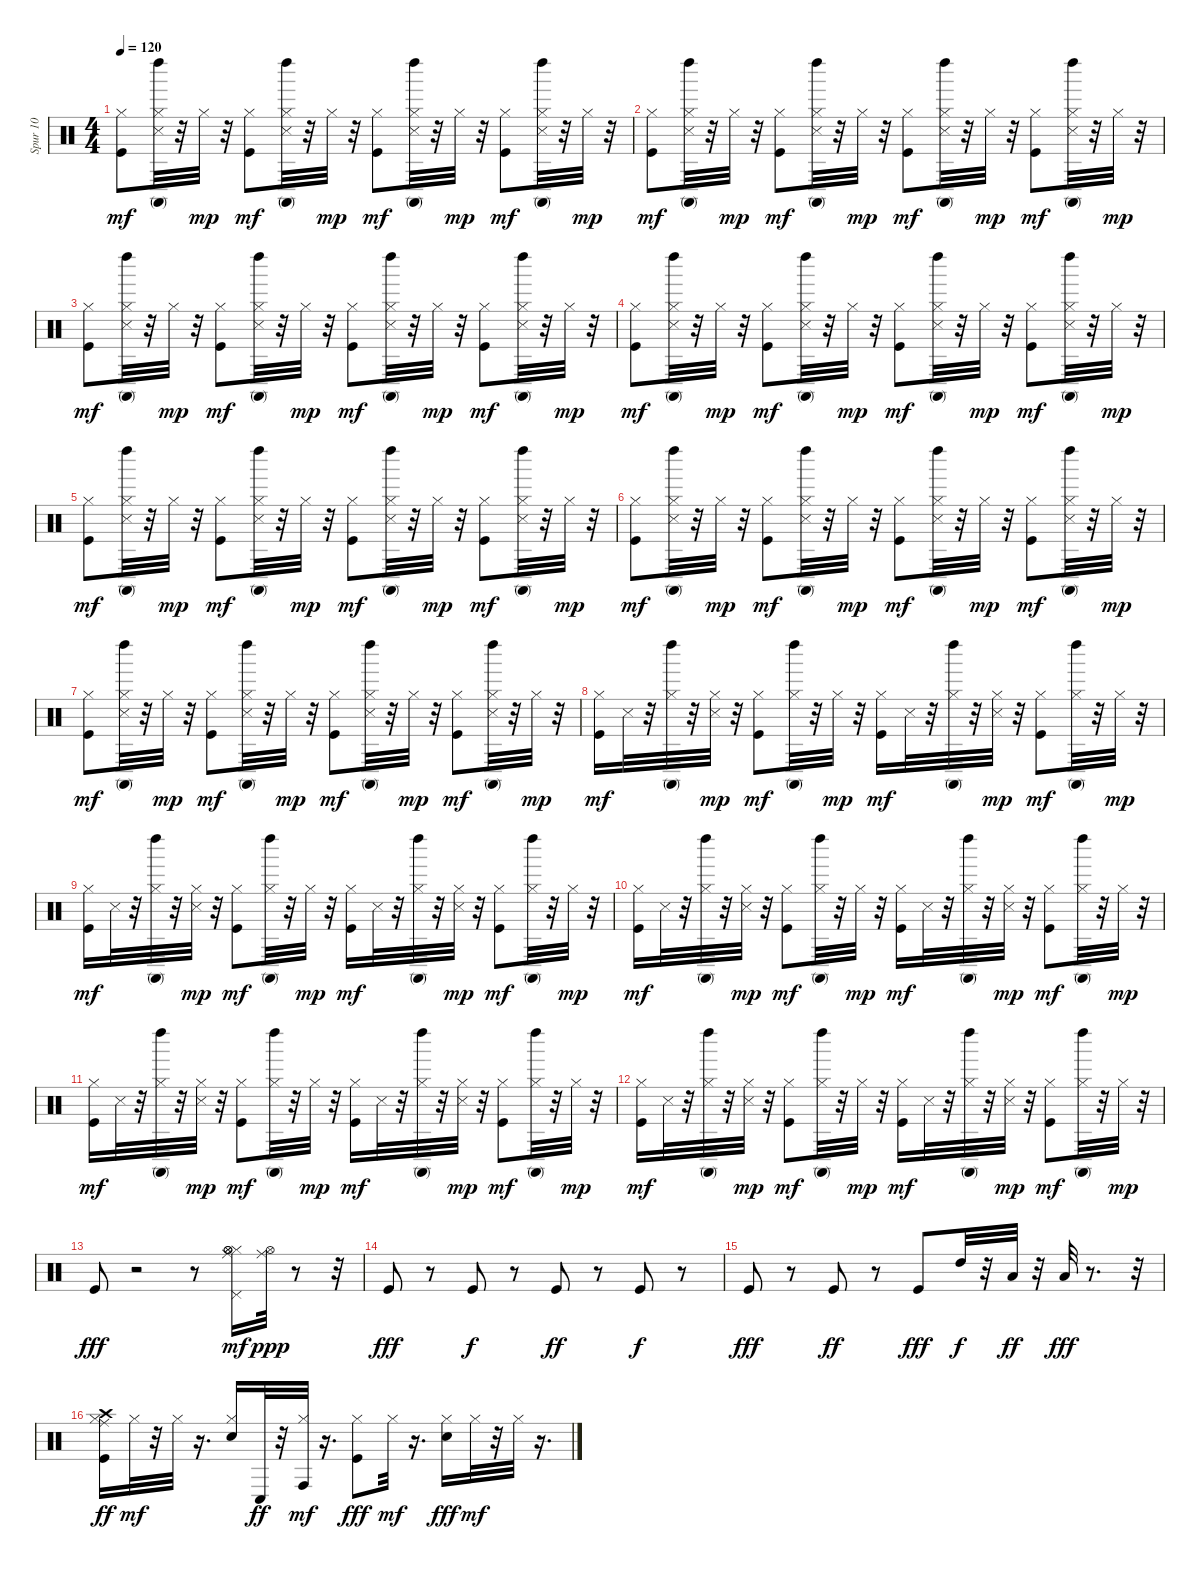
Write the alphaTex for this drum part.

\track ("Spur 10" "Spur 10") {instrument percussion}
\staff {score}
\articulation defaults
\ts (4 4)
\tempo 120
\clef neutral
\ks c
("Kick (hit)" "Hi-Hat (closed)").8{dy mf} ("Hi-Hat (closed)" "Snare (side stick) 3" "Conga high (mute)" "Left Maraca (hit)").32 r.32 "Hi-Hat (closed)".32{dy mp} r.32 ("Kick (hit)" "Hi-Hat (closed)").8{dy mf} ("Hi-Hat (closed)" "Snare (side stick) 3" "Conga high (mute)" "Left Maraca (hit)").32 r.32 "Hi-Hat (closed)".32{dy mp} r.32 ("Kick (hit)" "Hi-Hat (closed)").8{dy mf} ("Hi-Hat (closed)" "Snare (side stick) 3" "Conga high (mute)" "Left Maraca (hit)").32 r.32 "Hi-Hat (closed)".32{dy mp} r.32 ("Kick (hit)" "Hi-Hat (closed)").8{dy mf} ("Hi-Hat (closed)" "Snare (side stick) 3" "Conga high (mute)" "Left Maraca (hit)").32 r.32 "Hi-Hat (closed)".32{dy mp} r.32 |
("Kick (hit)" "Hi-Hat (closed)").8{dy mf} ("Hi-Hat (closed)" "Snare (side stick) 3" "Conga high (mute)" "Left Maraca (hit)").32 r.32 "Hi-Hat (closed)".32{dy mp} r.32 ("Kick (hit)" "Hi-Hat (closed)").8{dy mf} ("Hi-Hat (closed)" "Snare (side stick) 3" "Conga high (mute)" "Left Maraca (hit)").32 r.32 "Hi-Hat (closed)".32{dy mp} r.32 ("Kick (hit)" "Hi-Hat (closed)").8{dy mf} ("Hi-Hat (closed)" "Snare (side stick) 3" "Conga high (mute)" "Left Maraca (hit)").32 r.32 "Hi-Hat (closed)".32{dy mp} r.32 ("Kick (hit)" "Hi-Hat (closed)").8{dy mf} ("Hi-Hat (closed)" "Snare (side stick) 3" "Conga high (mute)" "Left Maraca (hit)").32 r.32 "Hi-Hat (closed)".32{dy mp} r.32 |
("Kick (hit)" "Hi-Hat (closed)").8{dy mf} ("Hi-Hat (closed)" "Snare (side stick) 3" "Conga high (mute)" "Left Maraca (hit)").32 r.32 "Hi-Hat (closed)".32{dy mp} r.32 ("Kick (hit)" "Hi-Hat (closed)").8{dy mf} ("Hi-Hat (closed)" "Snare (side stick) 3" "Conga high (mute)" "Left Maraca (hit)").32 r.32 "Hi-Hat (closed)".32{dy mp} r.32 ("Kick (hit)" "Hi-Hat (closed)").8{dy mf} ("Hi-Hat (closed)" "Snare (side stick) 3" "Conga high (mute)" "Left Maraca (hit)").32 r.32 "Hi-Hat (closed)".32{dy mp} r.32 ("Kick (hit)" "Hi-Hat (closed)").8{dy mf} ("Hi-Hat (closed)" "Snare (side stick) 3" "Conga high (mute)" "Left Maraca (hit)").32 r.32 "Hi-Hat (closed)".32{dy mp} r.32 |
("Kick (hit)" "Hi-Hat (closed)").8{dy mf} ("Hi-Hat (closed)" "Snare (side stick) 3" "Conga high (mute)" "Left Maraca (hit)").32 r.32 "Hi-Hat (closed)".32{dy mp} r.32 ("Kick (hit)" "Hi-Hat (closed)").8{dy mf} ("Hi-Hat (closed)" "Snare (side stick) 3" "Conga high (mute)" "Left Maraca (hit)").32 r.32 "Hi-Hat (closed)".32{dy mp} r.32 ("Kick (hit)" "Hi-Hat (closed)").8{dy mf} ("Hi-Hat (closed)" "Snare (side stick) 3" "Conga high (mute)" "Left Maraca (hit)").32 r.32 "Hi-Hat (closed)".32{dy mp} r.32 ("Kick (hit)" "Hi-Hat (closed)").8{dy mf} ("Hi-Hat (closed)" "Snare (side stick) 3" "Conga high (mute)" "Left Maraca (hit)").32 r.32 "Hi-Hat (closed)".32{dy mp} r.32 |
("Kick (hit)" "Hi-Hat (closed)").8{dy mf} ("Hi-Hat (closed)" "Snare (side stick) 3" "Conga high (mute)" "Left Maraca (hit)").32 r.32 "Hi-Hat (closed)".32{dy mp} r.32 ("Kick (hit)" "Hi-Hat (closed)").8{dy mf} ("Hi-Hat (closed)" "Snare (side stick) 3" "Conga high (mute)" "Left Maraca (hit)").32 r.32 "Hi-Hat (closed)".32{dy mp} r.32 ("Kick (hit)" "Hi-Hat (closed)").8{dy mf} ("Hi-Hat (closed)" "Snare (side stick) 3" "Conga high (mute)" "Left Maraca (hit)").32 r.32 "Hi-Hat (closed)".32{dy mp} r.32 ("Kick (hit)" "Hi-Hat (closed)").8{dy mf} ("Hi-Hat (closed)" "Snare (side stick) 3" "Conga high (mute)" "Left Maraca (hit)").32 r.32 "Hi-Hat (closed)".32{dy mp} r.32 |
("Kick (hit)" "Hi-Hat (closed)").8{dy mf} ("Hi-Hat (closed)" "Snare (side stick) 3" "Conga high (mute)" "Left Maraca (hit)").32 r.32 "Hi-Hat (closed)".32{dy mp} r.32 ("Kick (hit)" "Hi-Hat (closed)").8{dy mf} ("Hi-Hat (closed)" "Snare (side stick) 3" "Conga high (mute)" "Left Maraca (hit)").32 r.32 "Hi-Hat (closed)".32{dy mp} r.32 ("Kick (hit)" "Hi-Hat (closed)").8{dy mf} ("Hi-Hat (closed)" "Snare (side stick) 3" "Conga high (mute)" "Left Maraca (hit)").32 r.32 "Hi-Hat (closed)".32{dy mp} r.32 ("Kick (hit)" "Hi-Hat (closed)").8{dy mf} ("Hi-Hat (closed)" "Snare (side stick) 3" "Conga high (mute)" "Left Maraca (hit)").32 r.32 "Hi-Hat (closed)".32{dy mp} r.32 |
("Kick (hit)" "Hi-Hat (closed)").8{dy mf} ("Hi-Hat (closed)" "Snare (side stick) 3" "Conga high (mute)" "Left Maraca (hit)").32 r.32 "Hi-Hat (closed)".32{dy mp} r.32 ("Kick (hit)" "Hi-Hat (closed)").8{dy mf} ("Hi-Hat (closed)" "Snare (side stick) 3" "Conga high (mute)" "Left Maraca (hit)").32 r.32 "Hi-Hat (closed)".32{dy mp} r.32 ("Kick (hit)" "Hi-Hat (closed)").8{dy mf} ("Hi-Hat (closed)" "Snare (side stick) 3" "Conga high (mute)" "Left Maraca (hit)").32 r.32 "Hi-Hat (closed)".32{dy mp} r.32 ("Kick (hit)" "Hi-Hat (closed)").8{dy mf} ("Hi-Hat (closed)" "Snare (side stick) 3" "Conga high (mute)" "Left Maraca (hit)").32 r.32 "Hi-Hat (closed)".32{dy mp} r.32 |
("Kick (hit)" "Hi-Hat (closed)").16{dy mf} "Snare (side stick) 3".32 r.32 ("Hi-Hat (closed)" "Conga high (mute)" "Left Maraca (hit)").32 r.32 ("Hi-Hat (closed)" "Snare (side stick) 3").32{dy mp} r.32 ("Kick (hit)" "Hi-Hat (closed)").8{dy mf} ("Hi-Hat (closed)" "Conga high (mute)" "Left Maraca (hit)").32 r.32 "Hi-Hat (closed)".32{dy mp} r.32 ("Kick (hit)" "Hi-Hat (closed)").16{dy mf} "Snare (side stick) 3".32 r.32 ("Hi-Hat (closed)" "Conga high (mute)" "Left Maraca (hit)").32 r.32 ("Hi-Hat (closed)" "Snare (side stick) 3").32{dy mp} r.32 ("Kick (hit)" "Hi-Hat (closed)").8{dy mf} ("Hi-Hat (closed)" "Conga high (mute)" "Left Maraca (hit)").32 r.32 "Hi-Hat (closed)".32{dy mp} r.32 |
("Kick (hit)" "Hi-Hat (closed)").16{dy mf} "Snare (side stick) 3".32 r.32 ("Hi-Hat (closed)" "Conga high (mute)" "Left Maraca (hit)").32 r.32 ("Hi-Hat (closed)" "Snare (side stick) 3").32{dy mp} r.32 ("Kick (hit)" "Hi-Hat (closed)").8{dy mf} ("Hi-Hat (closed)" "Conga high (mute)" "Left Maraca (hit)").32 r.32 "Hi-Hat (closed)".32{dy mp} r.32 ("Kick (hit)" "Hi-Hat (closed)").16{dy mf} "Snare (side stick) 3".32 r.32 ("Hi-Hat (closed)" "Conga high (mute)" "Left Maraca (hit)").32 r.32 ("Hi-Hat (closed)" "Snare (side stick) 3").32{dy mp} r.32 ("Kick (hit)" "Hi-Hat (closed)").8{dy mf} ("Hi-Hat (closed)" "Conga high (mute)" "Left Maraca (hit)").32 r.32 "Hi-Hat (closed)".32{dy mp} r.32 |
("Kick (hit)" "Hi-Hat (closed)").16{dy mf} "Snare (side stick) 3".32 r.32 ("Hi-Hat (closed)" "Conga high (mute)" "Left Maraca (hit)").32 r.32 ("Hi-Hat (closed)" "Snare (side stick) 3").32{dy mp} r.32 ("Kick (hit)" "Hi-Hat (closed)").8{dy mf} ("Hi-Hat (closed)" "Conga high (mute)" "Left Maraca (hit)").32 r.32 "Hi-Hat (closed)".32{dy mp} r.32 ("Kick (hit)" "Hi-Hat (closed)").16{dy mf} "Snare (side stick) 3".32 r.32 ("Hi-Hat (closed)" "Conga high (mute)" "Left Maraca (hit)").32 r.32 ("Hi-Hat (closed)" "Snare (side stick) 3").32{dy mp} r.32 ("Kick (hit)" "Hi-Hat (closed)").8{dy mf} ("Hi-Hat (closed)" "Conga high (mute)" "Left Maraca (hit)").32 r.32 "Hi-Hat (closed)".32{dy mp} r.32 |
("Kick (hit)" "Hi-Hat (closed)").16{dy mf} "Snare (side stick) 3".32 r.32 ("Hi-Hat (closed)" "Conga high (mute)" "Left Maraca (hit)").32 r.32 ("Hi-Hat (closed)" "Snare (side stick) 3").32{dy mp} r.32 ("Kick (hit)" "Hi-Hat (closed)").8{dy mf} ("Hi-Hat (closed)" "Conga high (mute)" "Left Maraca (hit)").32 r.32 "Hi-Hat (closed)".32{dy mp} r.32 ("Kick (hit)" "Hi-Hat (closed)").16{dy mf} "Snare (side stick) 3".32 r.32 ("Hi-Hat (closed)" "Conga high (mute)" "Left Maraca (hit)").32 r.32 ("Hi-Hat (closed)" "Snare (side stick) 3").32{dy mp} r.32 ("Kick (hit)" "Hi-Hat (closed)").8{dy mf} ("Hi-Hat (closed)" "Conga high (mute)" "Left Maraca (hit)").32 r.32 "Hi-Hat (closed)".32{dy mp} r.32 |
("Kick (hit)" "Hi-Hat (closed)").16{dy mf} "Snare (side stick) 3".32 r.32 ("Hi-Hat (closed)" "Conga high (mute)" "Left Maraca (hit)").32 r.32 ("Hi-Hat (closed)" "Snare (side stick) 3").32{dy mp} r.32 ("Kick (hit)" "Hi-Hat (closed)").8{dy mf} ("Hi-Hat (closed)" "Conga high (mute)" "Left Maraca (hit)").32 r.32 "Hi-Hat (closed)".32{dy mp} r.32 ("Kick (hit)" "Hi-Hat (closed)").16{dy mf} "Snare (side stick) 3".32 r.32 ("Hi-Hat (closed)" "Conga high (mute)" "Left Maraca (hit)").32 r.32 ("Hi-Hat (closed)" "Snare (side stick) 3").32{dy mp} r.32 ("Kick (hit)" "Hi-Hat (closed)").8{dy mf} ("Hi-Hat (closed)" "Conga high (mute)" "Left Maraca (hit)").32 r.32 "Hi-Hat (closed)".32{dy mp} r.32 |
"Kick (hit)".8{dy fff} r.2 r.8 ("Hi-Hat (closed)" "Pedal Hi-Hat (hit)" "Hi-Hat (open)" "Ride (middle)" "Hi-Hat (open)").16{dy mf} ("Hi-Hat (open)" "Ride (middle)").32{dy ppp} r.8 r.32 |
"Kick (hit)".8{dy fff} r.8 "Kick (hit)".8{dy f} r.8 "Kick (hit)".8{dy ff} r.8 "Kick (hit)".8{dy f} r.8 |
"Kick (hit)".8{dy fff} r.8 "Kick (hit)".8{dy ff} r.8 "Kick (hit)".8{dy fff} "High Tom (hit)".32{dy f} r.32 "Low Tom (hit)".32{dy ff} r.32 "Low Floor Tom (hit)".32{dy fff} r.8{d} r.32 |
("Kick (hit)" "Hi-Hat (closed)" "Ride (middle)" "Crash high (hit)").16{dy ff} "Hi-Hat (closed)".32{dy mf} r.32 "Hi-Hat (closed)".32 r.16{d} ("Snare (hit) 2" "Hi-Hat (closed)").16 "Conga low (hit)".32{dy ff} r.32 ("Hi-Hat (closed)" "Conga high (hit)").32{dy mf} r.16{d} ("Kick (hit)" "Hi-Hat (closed)").8{dy fff} "Hi-Hat (closed)".32{dy mf} r.16{d} ("Snare (hit) 2" "Hi-Hat (closed)").16{dy fff} "Hi-Hat (closed)".32{dy mf} r.32 "Hi-Hat (closed)".32 r.16{d}
